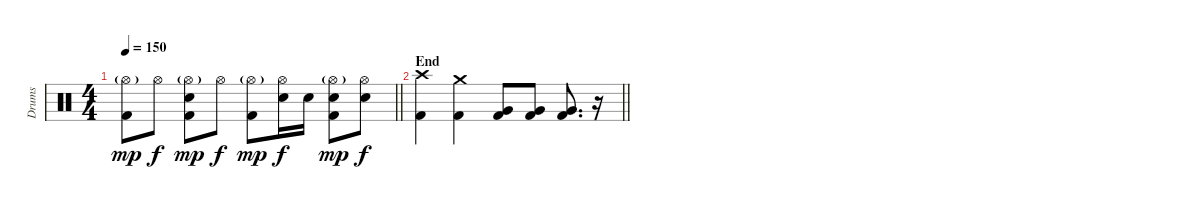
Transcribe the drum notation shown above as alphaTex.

\track ("Drums" "Drums") {instrument percussion}
\staff {score}
\articulation defaults
\ts (4 4)
\tempo 150
\clef neutral
\barLineRight lightlight
\ks c
("Hi-Hat (open)"{g} "Kick (hit) 2").8{dy mp} "Hi-Hat (open)".8{dy f} ("Hi-Hat (open)"{g} "Snare (hit) 2" "Kick (hit) 2").8{dy mp} "Hi-Hat (open)".8{dy f} ("Hi-Hat (open)"{g} "Kick (hit) 2").8{dy mp} ("Hi-Hat (open)" "Snare (hit) 2").16{dy f} "Snare (hit) 2".16 ("Hi-Hat (open)"{g} "Snare (hit) 2" "Kick (hit) 2").8{dy mp} ("Hi-Hat (open)" "Snare (hit) 2").8{dy f} |
\section ("" "End")
\barLineRight lightlight
("Crash high (hit)" "Kick (hit) 2").4 ("Crash medium (hit)" "Kick (hit) 2").4 ("Very Low Tom (hit)" "Kick (hit) 2").8 ("Very Low Tom (hit)" "Kick (hit) 2").8 ("Very Low Tom (hit)" "Kick (hit) 2").8{d} r.16
